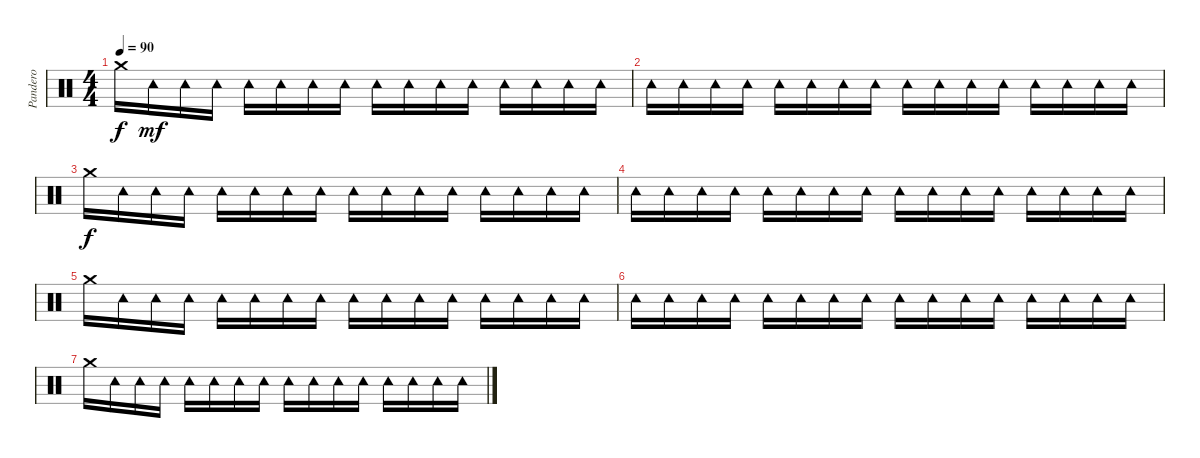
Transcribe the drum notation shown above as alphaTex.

\track ("Pandero" "Pandero") {instrument percussion}
\staff {score}
\articulation defaults
\ts (4 4)
\tempo 90
\clef neutral
\ks c "Crash medium (hit)".16{dy f} "Tambourine (hit)".16{dy mf} "Tambourine (hit)".16 "Tambourine (hit)".16 "Tambourine (hit)".16 "Tambourine (hit)".16 "Tambourine (hit)".16 "Tambourine (hit)".16 "Tambourine (hit)".16 "Tambourine (hit)".16 "Tambourine (hit)".16 "Tambourine (hit)".16 "Tambourine (hit)".16 "Tambourine (hit)".16 "Tambourine (hit)".16 "Tambourine (hit)".16
|
"Tambourine (hit)".16 "Tambourine (hit)".16 "Tambourine (hit)".16 "Tambourine (hit)".16 "Tambourine (hit)".16 "Tambourine (hit)".16 "Tambourine (hit)".16 "Tambourine (hit)".16 "Tambourine (hit)".16 "Tambourine (hit)".16 "Tambourine (hit)".16 "Tambourine (hit)".16 "Tambourine (hit)".16 "Tambourine (hit)".16 "Tambourine (hit)".16 "Tambourine (hit)".16 |
"Crash medium (hit)".16{dy f} "Tambourine (hit)".16 "Tambourine (hit)".16 "Tambourine (hit)".16 "Tambourine (hit)".16 "Tambourine (hit)".16 "Tambourine (hit)".16 "Tambourine (hit)".16 "Tambourine (hit)".16 "Tambourine (hit)".16 "Tambourine (hit)".16 "Tambourine (hit)".16 "Tambourine (hit)".16 "Tambourine (hit)".16 "Tambourine (hit)".16 "Tambourine (hit)".16 |
"Tambourine (hit)".16 "Tambourine (hit)".16 "Tambourine (hit)".16 "Tambourine (hit)".16 "Tambourine (hit)".16 "Tambourine (hit)".16 "Tambourine (hit)".16 "Tambourine (hit)".16 "Tambourine (hit)".16 "Tambourine (hit)".16 "Tambourine (hit)".16 "Tambourine (hit)".16 "Tambourine (hit)".16 "Tambourine (hit)".16 "Tambourine (hit)".16 "Tambourine (hit)".16 |
"Crash medium (hit)".16 "Tambourine (hit)".16 "Tambourine (hit)".16 "Tambourine (hit)".16 "Tambourine (hit)".16 "Tambourine (hit)".16 "Tambourine (hit)".16 "Tambourine (hit)".16 "Tambourine (hit)".16 "Tambourine (hit)".16 "Tambourine (hit)".16 "Tambourine (hit)".16 "Tambourine (hit)".16 "Tambourine (hit)".16 "Tambourine (hit)".16 "Tambourine (hit)".16 |
"Tambourine (hit)".16 "Tambourine (hit)".16 "Tambourine (hit)".16 "Tambourine (hit)".16 "Tambourine (hit)".16 "Tambourine (hit)".16 "Tambourine (hit)".16 "Tambourine (hit)".16 "Tambourine (hit)".16 "Tambourine (hit)".16 "Tambourine (hit)".16 "Tambourine (hit)".16 "Tambourine (hit)".16 "Tambourine (hit)".16 "Tambourine (hit)".16 "Tambourine (hit)".16 |
"Crash medium (hit)".16 "Tambourine (hit)".16 "Tambourine (hit)".16 "Tambourine (hit)".16 "Tambourine (hit)".16 "Tambourine (hit)".16 "Tambourine (hit)".16 "Tambourine (hit)".16 "Tambourine (hit)".16 "Tambourine (hit)".16 "Tambourine (hit)".16 "Tambourine (hit)".16 "Tambourine (hit)".16 "Tambourine (hit)".16 "Tambourine (hit)".16 "Tambourine (hit)".16
